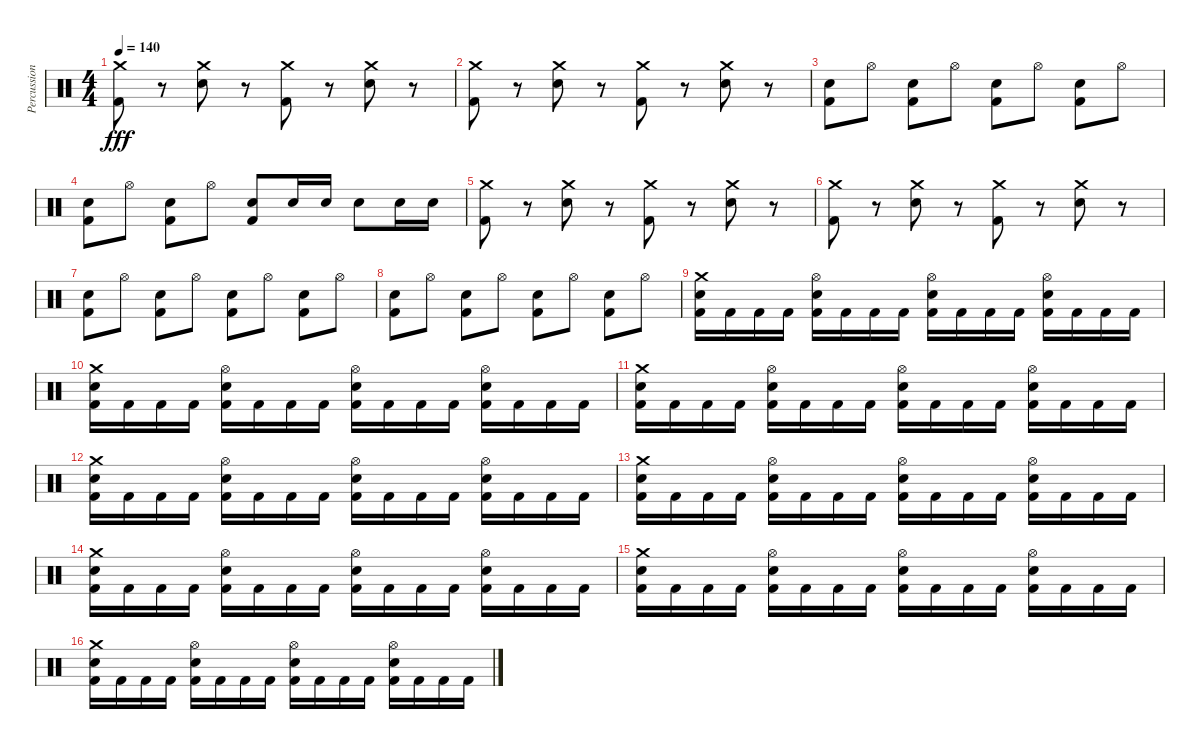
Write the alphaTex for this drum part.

\track ("Percussion" "Percussion") {instrument percussion}
\staff {score}
\articulation defaults
\ts (4 4)
\tempo 140
\clef neutral
\ks c
("Crash medium (hit)" "Kick (hit) 2").8{dy fff} r.8 ("Crash medium (hit)" "Electric Snare (hit)").8 r.8 ("Crash medium (hit)" "Kick (hit) 2").8 r.8 ("Crash medium (hit)" "Electric Snare (hit)").8 r.8 |
("Crash medium (hit)" "Kick (hit) 2").8 r.8 ("Crash medium (hit)" "Electric Snare (hit)").8 r.8 ("Crash medium (hit)" "Kick (hit) 2").8 r.8 ("Crash medium (hit)" "Electric Snare (hit)").8 r.8 |
("Electric Snare (hit)" "Kick (hit) 2").8 "Hi-Hat (open)".8 ("Electric Snare (hit)" "Kick (hit) 2").8 "Hi-Hat (open)".8 ("Electric Snare (hit)" "Kick (hit) 2").8 "Hi-Hat (open)".8 ("Electric Snare (hit)" "Kick (hit) 2").8 "Hi-Hat (open)".8 |
("Electric Snare (hit)" "Kick (hit) 2").8 "Hi-Hat (open)".8 ("Electric Snare (hit)" "Kick (hit) 2").8 "Hi-Hat (open)".8 ("Electric Snare (hit)" "Kick (hit) 2").8 "Electric Snare (hit)".16 "Electric Snare (hit)".16 "Electric Snare (hit)".8 "Electric Snare (hit)".16 "Electric Snare (hit)".16 |
("Crash medium (hit)" "Kick (hit) 2").8 r.8 ("Crash medium (hit)" "Electric Snare (hit)").8 r.8 ("Crash medium (hit)" "Kick (hit) 2").8 r.8 ("Crash medium (hit)" "Electric Snare (hit)").8 r.8 |
("Crash medium (hit)" "Kick (hit) 2").8 r.8 ("Crash medium (hit)" "Electric Snare (hit)").8 r.8 ("Crash medium (hit)" "Kick (hit) 2").8 r.8 ("Crash medium (hit)" "Electric Snare (hit)").8 r.8 |
("Electric Snare (hit)" "Kick (hit) 2").8 "Hi-Hat (open)".8 ("Electric Snare (hit)" "Kick (hit) 2").8 "Hi-Hat (open)".8 ("Electric Snare (hit)" "Kick (hit) 2").8 "Hi-Hat (open)".8 ("Electric Snare (hit)" "Kick (hit) 2").8 "Hi-Hat (open)".8 |
("Electric Snare (hit)" "Kick (hit) 2").8 "Hi-Hat (open)".8 ("Electric Snare (hit)" "Kick (hit) 2").8 "Hi-Hat (open)".8 ("Electric Snare (hit)" "Kick (hit) 2").8 "Hi-Hat (open)".8 ("Electric Snare (hit)" "Kick (hit) 2").8 "Hi-Hat (open)".8 |
("Electric Snare (hit)" "Crash medium (hit)" "Kick (hit) 2").16 "Kick (hit) 2".16 "Kick (hit) 2".16 "Kick (hit) 2".16 ("Electric Snare (hit)" "Hi-Hat (open)" "Kick (hit) 2").16 "Kick (hit) 2".16 "Kick (hit) 2".16 "Kick (hit) 2".16 ("Electric Snare (hit)" "Hi-Hat (open)" "Kick (hit) 2").16 "Kick (hit) 2".16 "Kick (hit) 2".16 "Kick (hit) 2".16 ("Electric Snare (hit)" "Hi-Hat (open)" "Kick (hit) 2").16 "Kick (hit) 2".16 "Kick (hit) 2".16 "Kick (hit) 2".16 |
("Electric Snare (hit)" "Crash medium (hit)" "Kick (hit) 2").16 "Kick (hit) 2".16 "Kick (hit) 2".16 "Kick (hit) 2".16 ("Electric Snare (hit)" "Hi-Hat (open)" "Kick (hit) 2").16 "Kick (hit) 2".16 "Kick (hit) 2".16 "Kick (hit) 2".16 ("Electric Snare (hit)" "Hi-Hat (open)" "Kick (hit) 2").16 "Kick (hit) 2".16 "Kick (hit) 2".16 "Kick (hit) 2".16 ("Electric Snare (hit)" "Hi-Hat (open)" "Kick (hit) 2").16 "Kick (hit) 2".16 "Kick (hit) 2".16 "Kick (hit) 2".16 |
("Electric Snare (hit)" "Crash medium (hit)" "Kick (hit) 2").16 "Kick (hit) 2".16 "Kick (hit) 2".16 "Kick (hit) 2".16 ("Electric Snare (hit)" "Hi-Hat (open)" "Kick (hit) 2").16 "Kick (hit) 2".16 "Kick (hit) 2".16 "Kick (hit) 2".16 ("Electric Snare (hit)" "Hi-Hat (open)" "Kick (hit) 2").16 "Kick (hit) 2".16 "Kick (hit) 2".16 "Kick (hit) 2".16 ("Electric Snare (hit)" "Hi-Hat (open)" "Kick (hit) 2").16 "Kick (hit) 2".16 "Kick (hit) 2".16 "Kick (hit) 2".16 |
("Electric Snare (hit)" "Crash medium (hit)" "Kick (hit) 2").16 "Kick (hit) 2".16 "Kick (hit) 2".16 "Kick (hit) 2".16 ("Electric Snare (hit)" "Hi-Hat (open)" "Kick (hit) 2").16 "Kick (hit) 2".16 "Kick (hit) 2".16 "Kick (hit) 2".16 ("Electric Snare (hit)" "Hi-Hat (open)" "Kick (hit) 2").16 "Kick (hit) 2".16 "Kick (hit) 2".16 "Kick (hit) 2".16 ("Electric Snare (hit)" "Hi-Hat (open)" "Kick (hit) 2").16 "Kick (hit) 2".16 "Kick (hit) 2".16 "Kick (hit) 2".16 |
("Electric Snare (hit)" "Crash medium (hit)" "Kick (hit) 2").16 "Kick (hit) 2".16 "Kick (hit) 2".16 "Kick (hit) 2".16 ("Electric Snare (hit)" "Hi-Hat (open)" "Kick (hit) 2").16 "Kick (hit) 2".16 "Kick (hit) 2".16 "Kick (hit) 2".16 ("Electric Snare (hit)" "Hi-Hat (open)" "Kick (hit) 2").16 "Kick (hit) 2".16 "Kick (hit) 2".16 "Kick (hit) 2".16 ("Electric Snare (hit)" "Hi-Hat (open)" "Kick (hit) 2").16 "Kick (hit) 2".16 "Kick (hit) 2".16 "Kick (hit) 2".16 |
("Electric Snare (hit)" "Crash medium (hit)" "Kick (hit) 2").16 "Kick (hit) 2".16 "Kick (hit) 2".16 "Kick (hit) 2".16 ("Electric Snare (hit)" "Hi-Hat (open)" "Kick (hit) 2").16 "Kick (hit) 2".16 "Kick (hit) 2".16 "Kick (hit) 2".16 ("Electric Snare (hit)" "Hi-Hat (open)" "Kick (hit) 2").16 "Kick (hit) 2".16 "Kick (hit) 2".16 "Kick (hit) 2".16 ("Electric Snare (hit)" "Hi-Hat (open)" "Kick (hit) 2").16 "Kick (hit) 2".16 "Kick (hit) 2".16 "Kick (hit) 2".16 |
("Electric Snare (hit)" "Crash medium (hit)" "Kick (hit) 2").16 "Kick (hit) 2".16 "Kick (hit) 2".16 "Kick (hit) 2".16 ("Electric Snare (hit)" "Hi-Hat (open)" "Kick (hit) 2").16 "Kick (hit) 2".16 "Kick (hit) 2".16 "Kick (hit) 2".16 ("Electric Snare (hit)" "Hi-Hat (open)" "Kick (hit) 2").16 "Kick (hit) 2".16 "Kick (hit) 2".16 "Kick (hit) 2".16 ("Electric Snare (hit)" "Hi-Hat (open)" "Kick (hit) 2").16 "Kick (hit) 2".16 "Kick (hit) 2".16 "Kick (hit) 2".16 |
("Electric Snare (hit)" "Crash medium (hit)" "Kick (hit) 2").16 "Kick (hit) 2".16 "Kick (hit) 2".16 "Kick (hit) 2".16 ("Electric Snare (hit)" "Hi-Hat (open)" "Kick (hit) 2").16 "Kick (hit) 2".16 "Kick (hit) 2".16 "Kick (hit) 2".16 ("Electric Snare (hit)" "Hi-Hat (open)" "Kick (hit) 2").16 "Kick (hit) 2".16 "Kick (hit) 2".16 "Kick (hit) 2".16 ("Electric Snare (hit)" "Hi-Hat (open)" "Kick (hit) 2").16 "Kick (hit) 2".16 "Kick (hit) 2".16 "Kick (hit) 2".16
